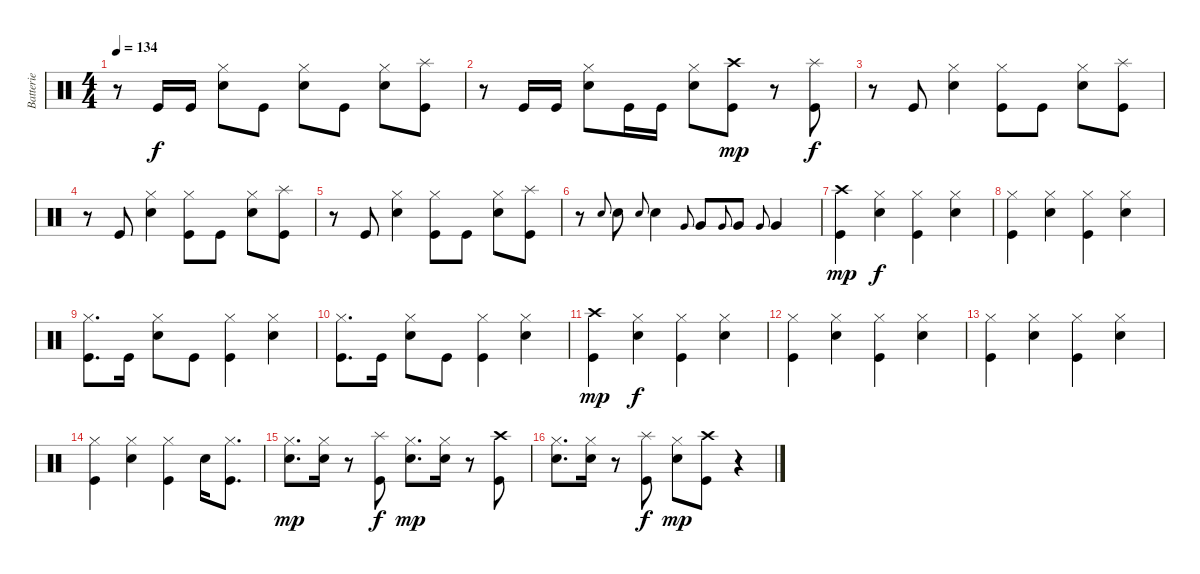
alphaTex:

\track ("Batterie" "Batterie") {instrument percussion}
\staff {score}
\articulation defaults
\ts (4 4)
\tempo 134
\clef neutral
\ks c
r.8{dy f} "Kick (hit)".16 "Kick (hit)".16 ("Hi-Hat (closed)" "Snare (hit) 2").8 "Kick (hit)".8 ("Hi-Hat (closed)" "Snare (hit) 2").8 "Kick (hit)".8 ("Hi-Hat (closed)" "Snare (hit) 2").8 ("Splash (hit)" "Kick (hit)").8 |
r.8 "Kick (hit)".16 "Kick (hit)".16 ("Hi-Hat (closed)" "Snare (hit) 2").8 "Kick (hit)".16 "Kick (hit)".16 ("Hi-Hat (closed)" "Snare (hit) 2").8 ("Crash high (hit)" "Kick (hit)").8{dy mp} r.8 ("Splash (hit)" "Kick (hit)").8{dy f} |
r.8 "Kick (hit)".8 ("Hi-Hat (closed)" "Snare (hit) 2").4 ("Hi-Hat (closed)" "Kick (hit)").8 "Kick (hit)".8 ("Hi-Hat (closed)" "Snare (hit) 2").8 ("Splash (hit)" "Kick (hit)").8 |
r.8 "Kick (hit)".8 ("Hi-Hat (closed)" "Snare (hit) 2").4 ("Hi-Hat (closed)" "Kick (hit)").8 "Kick (hit)".8 ("Hi-Hat (closed)" "Snare (hit) 2").8 ("Splash (hit)" "Kick (hit)").8 |
r.8 "Kick (hit)".8 ("Hi-Hat (closed)" "Snare (hit) 2").4 ("Hi-Hat (closed)" "Kick (hit)").8 "Kick (hit)".8 ("Hi-Hat (closed)" "Snare (hit) 2").8 ("Splash (hit)" "Kick (hit)").8 |
r.8 "Snare (hit) 2".8{gr onbeat} "Snare (hit) 2".8 "Snare (hit) 2".8{gr onbeat} "Snare (hit) 2".4 "Very Low Tom (hit)".8{gr onbeat} "Very Low Tom (hit)".8 "Very Low Tom (hit)".8{gr onbeat} "Very Low Tom (hit)".8 "Very Low Tom (hit)".8{gr onbeat} "Very Low Tom (hit)".4 |
("Crash high (hit)" "Kick (hit)").4{dy mp} ("Hi-Hat (closed)" "Snare (hit) 2").4{dy f} ("Hi-Hat (closed)" "Kick (hit)").4 ("Hi-Hat (closed)" "Snare (hit) 2").4 |
("Hi-Hat (closed)" "Kick (hit)").4 ("Hi-Hat (closed)" "Snare (hit) 2").4 ("Hi-Hat (closed)" "Kick (hit)").4 ("Hi-Hat (closed)" "Snare (hit) 2").4 |
("Hi-Hat (closed)" "Kick (hit)").8{d} "Kick (hit)".16 ("Hi-Hat (closed)" "Snare (hit) 2").8 "Kick (hit)".8 ("Hi-Hat (closed)" "Kick (hit)").4 ("Hi-Hat (closed)" "Snare (hit) 2").4 |
("Hi-Hat (closed)" "Kick (hit)").8{d} "Kick (hit)".16 ("Hi-Hat (closed)" "Snare (hit) 2").8 "Kick (hit)".8 ("Hi-Hat (closed)" "Kick (hit)").4 ("Hi-Hat (closed)" "Snare (hit) 2").4 |
("Crash high (hit)" "Kick (hit)").4{dy mp} ("Hi-Hat (closed)" "Snare (hit) 2").4{dy f} ("Hi-Hat (closed)" "Kick (hit)").4 ("Hi-Hat (closed)" "Snare (hit) 2").4 |
("Hi-Hat (closed)" "Kick (hit)").4 ("Hi-Hat (closed)" "Snare (hit) 2").4 ("Hi-Hat (closed)" "Kick (hit)").4 ("Hi-Hat (closed)" "Snare (hit) 2").4 |
("Hi-Hat (closed)" "Kick (hit)").4 ("Hi-Hat (closed)" "Snare (hit) 2").4 ("Hi-Hat (closed)" "Kick (hit)").4 ("Hi-Hat (closed)" "Snare (hit) 2").4 |
("Hi-Hat (closed)" "Kick (hit)").4 ("Hi-Hat (closed)" "Snare (hit) 2").4 ("Hi-Hat (closed)" "Kick (hit)").4 "Snare (hit) 2".16 ("Hi-Hat (closed)" "Kick (hit)").8{d} |
("Hi-Hat (closed)" "Snare (hit) 2").8{d dy mp} ("Hi-Hat (closed)" "Snare (hit) 2").16 r.8 ("Splash (hit)" "Kick (hit)").8{dy f} ("Hi-Hat (closed)" "Snare (hit) 2").8{d dy mp} ("Hi-Hat (closed)" "Snare (hit) 2").16 r.8 ("Crash high (hit)" "Kick (hit)").8 |
("Hi-Hat (closed)" "Snare (hit) 2").8{d} ("Hi-Hat (closed)" "Snare (hit) 2").16 r.8 ("Splash (hit)" "Kick (hit)").8{dy f} ("Hi-Hat (closed)" "Snare (hit) 2").8{dy mp} ("Crash high (hit)" "Kick (hit)").8 r.4
